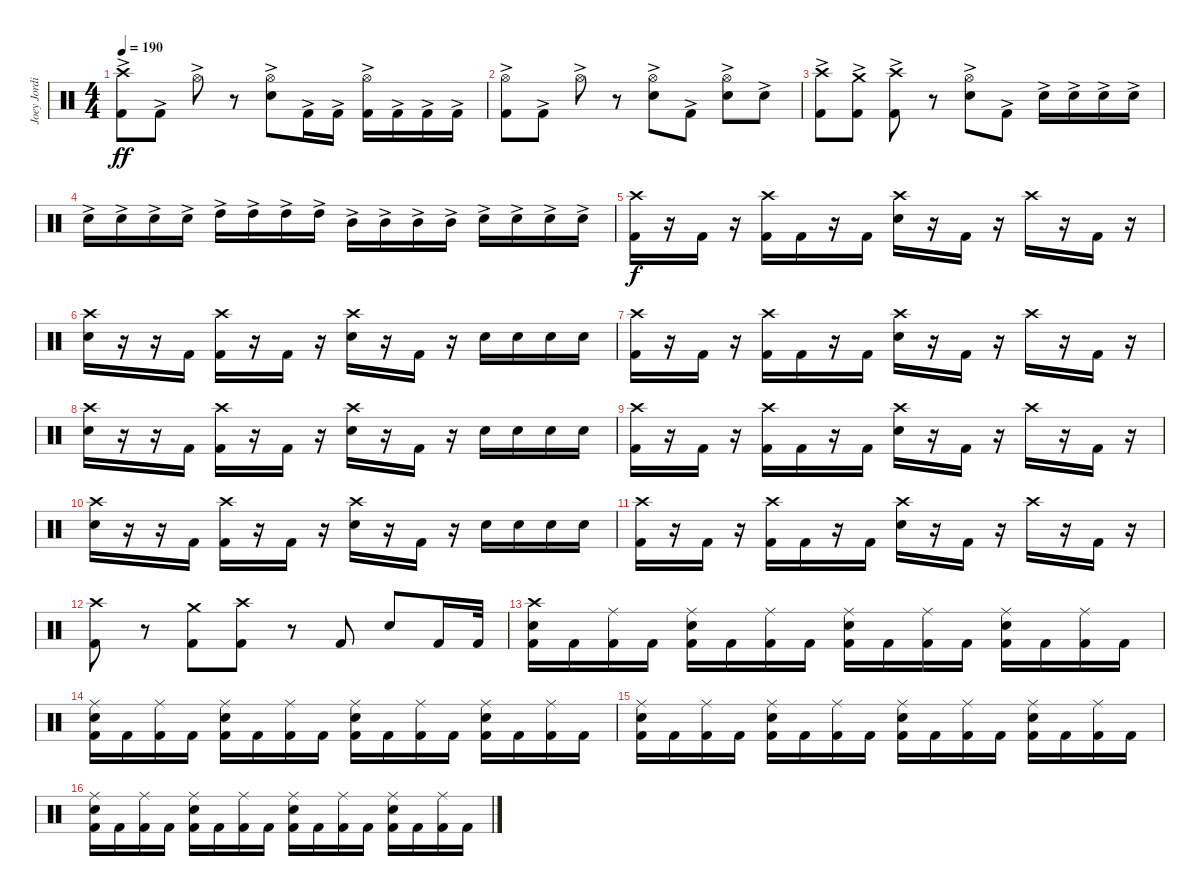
\track ("Joey Jordison" "Joey Jordi") {instrument percussion}
\staff {score}
\articulation defaults
\ts (4 4)
\tempo 190
\clef neutral
\ks c
("Crash high (hit)"{ac} "Kick (hit) 2"{ac}).8{dy ff} "Kick (hit) 2"{ac}.8 "Hi-Hat (open)"{ac}.8 r.8 ("Hi-Hat (open)"{ac} "Electric Snare (hit)"{ac}).8 "Kick (hit) 2"{ac}.16 "Kick (hit) 2"{ac}.16 ("Hi-Hat (open)"{ac} "Kick (hit) 2"{ac}).16 "Kick (hit) 2"{ac}.16 "Kick (hit) 2"{ac}.16 "Kick (hit) 2"{ac}.16 |
("Hi-Hat (open)"{ac} "Kick (hit) 2"{ac}).8 "Kick (hit) 2"{ac}.8 "Hi-Hat (open)"{ac}.8 r.8 ("Hi-Hat (open)"{ac} "Electric Snare (hit)"{ac}).8 "Kick (hit) 2"{ac}.8 ("Hi-Hat (open)"{ac} "Electric Snare (hit)"{ac}).8 "Electric Snare (hit)"{ac}.8 |
("Crash high (hit)"{ac} "Kick (hit) 2"{ac}).8 ("Crash medium (hit)"{ac} "Kick (hit) 2"{ac}).8 ("Crash high (hit)"{ac} "Kick (hit) 2"{ac}).8 r.8 ("Hi-Hat (open)"{ac} "Electric Snare (hit)"{ac}).8 "Kick (hit) 2"{ac}.8 "Electric Snare (hit)"{ac}.16 "Electric Snare (hit)"{ac}.16 "Electric Snare (hit)"{ac}.16 "Electric Snare (hit)"{ac}.16 |
"Electric Snare (hit)"{ac}.16 "Electric Snare (hit)"{ac}.16 "Electric Snare (hit)"{ac}.16 "Electric Snare (hit)"{ac}.16 "High Tom (hit)"{ac}.16 "High Tom (hit)"{ac}.16 "High Tom (hit)"{ac}.16 "High Tom (hit)"{ac}.16 "Mid Tom (hit)"{ac}.16 "Mid Tom (hit)"{ac}.16 "Mid Tom (hit)"{ac}.16 "Mid Tom (hit)"{ac}.16 "Electric Snare (hit)"{ac}.16 "Electric Snare (hit)"{ac}.16 "Electric Snare (hit)"{ac}.16 "Electric Snare (hit)"{ac}.16 |
("Crash high (hit)" "Kick (hit) 2").16{dy f} r.16 "Kick (hit) 2".16 r.16 ("Crash high (hit)" "Kick (hit) 2").16 "Kick (hit) 2".16 r.16 "Kick (hit) 2".16 ("Crash high (hit)" "Electric Snare (hit)").16 r.16 "Kick (hit) 2".16 r.16 "Crash high (hit)".16 r.16 "Kick (hit) 2".16 r.16 |
("Crash high (hit)" "Electric Snare (hit)").16 r.16 r.16 "Kick (hit) 2".16 ("Crash high (hit)" "Kick (hit) 2").16 r.16 "Kick (hit) 2".16 r.16 ("Crash high (hit)" "Electric Snare (hit)").16 r.16 "Kick (hit) 2".16 r.16 "Electric Snare (hit)".16 "Electric Snare (hit)".16 "Electric Snare (hit)".16 "Electric Snare (hit)".16 |
("Crash high (hit)" "Kick (hit) 2").16 r.16 "Kick (hit) 2".16 r.16 ("Crash high (hit)" "Kick (hit) 2").16 "Kick (hit) 2".16 r.16 "Kick (hit) 2".16 ("Crash high (hit)" "Electric Snare (hit)").16 r.16 "Kick (hit) 2".16 r.16 "Crash high (hit)".16 r.16 "Kick (hit) 2".16 r.16 |
("Crash high (hit)" "Electric Snare (hit)").16 r.16 r.16 "Kick (hit) 2".16 ("Crash high (hit)" "Kick (hit) 2").16 r.16 "Kick (hit) 2".16 r.16 ("Crash high (hit)" "Electric Snare (hit)").16 r.16 "Kick (hit) 2".16 r.16 "Electric Snare (hit)".16 "Electric Snare (hit)".16 "Electric Snare (hit)".16 "Electric Snare (hit)".16 |
("Crash high (hit)" "Kick (hit) 2").16 r.16 "Kick (hit) 2".16 r.16 ("Crash high (hit)" "Kick (hit) 2").16 "Kick (hit) 2".16 r.16 "Kick (hit) 2".16 ("Crash high (hit)" "Electric Snare (hit)").16 r.16 "Kick (hit) 2".16 r.16 "Crash high (hit)".16 r.16 "Kick (hit) 2".16 r.16 |
("Crash high (hit)" "Electric Snare (hit)").16 r.16 r.16 "Kick (hit) 2".16 ("Crash high (hit)" "Kick (hit) 2").16 r.16 "Kick (hit) 2".16 r.16 ("Crash high (hit)" "Electric Snare (hit)").16 r.16 "Kick (hit) 2".16 r.16 "Electric Snare (hit)".16 "Electric Snare (hit)".16 "Electric Snare (hit)".16 "Electric Snare (hit)".16 |
("Crash high (hit)" "Kick (hit) 2").16 r.16 "Kick (hit) 2".16 r.16 ("Crash high (hit)" "Kick (hit) 2").16 "Kick (hit) 2".16 r.16 "Kick (hit) 2".16 ("Crash high (hit)" "Electric Snare (hit)").16 r.16 "Kick (hit) 2".16 r.16 "Crash high (hit)".16 r.16 "Kick (hit) 2".16 r.16 |
("Crash high (hit)" "Kick (hit) 2").8 r.8 ("Crash medium (hit)" "Kick (hit) 2").8 ("Crash high (hit)" "Kick (hit) 2").8 r.8 "Kick (hit) 2".8 "Electric Snare (hit)".8 "Kick (hit) 2".16 "Kick (hit) 2".32 |
("Crash high (hit)" "Electric Snare (hit)" "Kick (hit) 2").16 "Kick (hit) 2".16 ("Ride (middle)" "Kick (hit) 2").16 "Kick (hit) 2".16 ("Ride (middle)" "Electric Snare (hit)" "Kick (hit) 2").16 "Kick (hit) 2".16 ("Ride (middle)" "Kick (hit) 2").16 "Kick (hit) 2".16 ("Ride (middle)" "Electric Snare (hit)" "Kick (hit) 2").16 "Kick (hit) 2".16 ("Ride (middle)" "Kick (hit) 2").16 "Kick (hit) 2".16 ("Ride (middle)" "Electric Snare (hit)" "Kick (hit) 2").16 "Kick (hit) 2".16 ("Ride (middle)" "Kick (hit) 2").16 "Kick (hit) 2".16 |
("Ride (middle)" "Electric Snare (hit)" "Kick (hit) 2").16 "Kick (hit) 2".16 ("Ride (middle)" "Kick (hit) 2").16 "Kick (hit) 2".16 ("Ride (middle)" "Electric Snare (hit)" "Kick (hit) 2").16 "Kick (hit) 2".16 ("Ride (middle)" "Kick (hit) 2").16 "Kick (hit) 2".16 ("Ride (middle)" "Electric Snare (hit)" "Kick (hit) 2").16 "Kick (hit) 2".16 ("Ride (middle)" "Kick (hit) 2").16 "Kick (hit) 2".16 ("Ride (middle)" "Electric Snare (hit)" "Kick (hit) 2").16 "Kick (hit) 2".16 ("Ride (middle)" "Kick (hit) 2").16 "Kick (hit) 2".16 |
("Ride (middle)" "Electric Snare (hit)" "Kick (hit) 2").16 "Kick (hit) 2".16 ("Ride (middle)" "Kick (hit) 2").16 "Kick (hit) 2".16 ("Ride (middle)" "Electric Snare (hit)" "Kick (hit) 2").16 "Kick (hit) 2".16 ("Ride (middle)" "Kick (hit) 2").16 "Kick (hit) 2".16 ("Ride (middle)" "Electric Snare (hit)" "Kick (hit) 2").16 "Kick (hit) 2".16 ("Ride (middle)" "Kick (hit) 2").16 "Kick (hit) 2".16 ("Ride (middle)" "Electric Snare (hit)" "Kick (hit) 2").16 "Kick (hit) 2".16 ("Ride (middle)" "Kick (hit) 2").16 "Kick (hit) 2".16 |
("Ride (middle)" "Electric Snare (hit)" "Kick (hit) 2").16 "Kick (hit) 2".16 ("Ride (middle)" "Kick (hit) 2").16 "Kick (hit) 2".16 ("Ride (middle)" "Electric Snare (hit)" "Kick (hit) 2").16 "Kick (hit) 2".16 ("Ride (middle)" "Kick (hit) 2").16 "Kick (hit) 2".16 ("Ride (middle)" "Electric Snare (hit)" "Kick (hit) 2").16 "Kick (hit) 2".16 ("Ride (middle)" "Kick (hit) 2").16 "Kick (hit) 2".16 ("Ride (middle)" "Electric Snare (hit)" "Kick (hit) 2").16 "Kick (hit) 2".16 ("Ride (middle)" "Kick (hit) 2").16 "Kick (hit) 2".16
